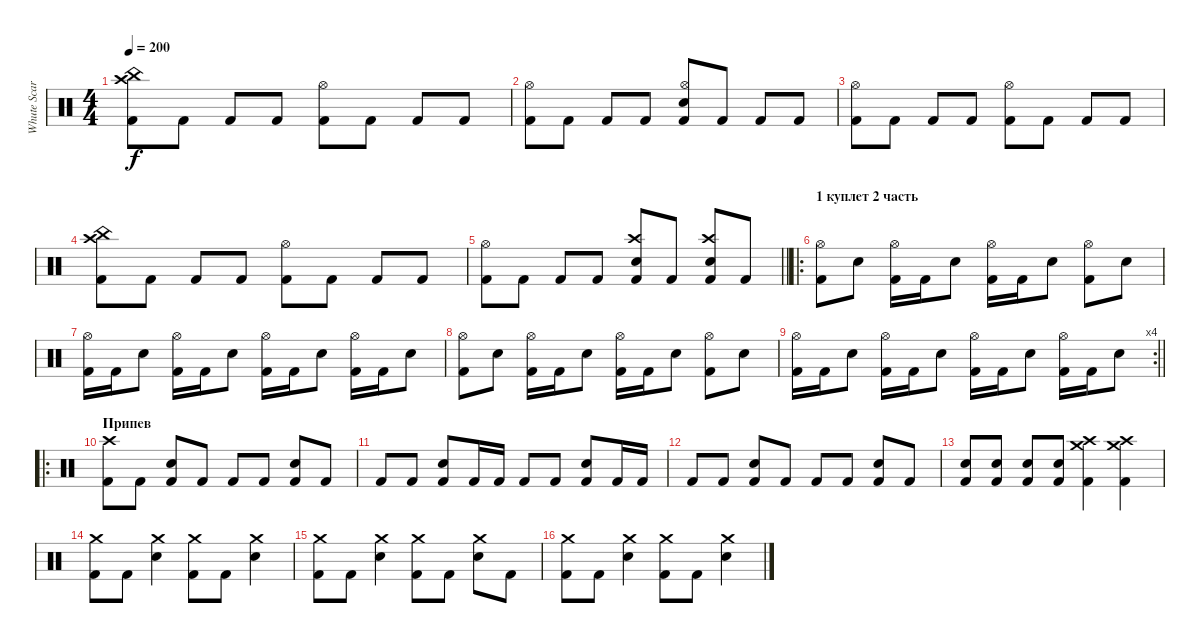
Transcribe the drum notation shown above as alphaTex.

\track ("Whute Scar" "Whute Scar") {instrument percussion}
\staff {score}
\articulation defaults
\ts (4 4)
\tempo 200
\clef neutral
\ks c
("Kick (hit) 2" "Crash high (hit)" "China (hit)").8{dy f} "Kick (hit) 2".8 "Kick (hit) 2".8 "Kick (hit) 2".8 ("Kick (hit) 2" "Hi-Hat (open)").8 "Kick (hit) 2".8 "Kick (hit) 2".8 "Kick (hit) 2".8 |
("Kick (hit) 2" "Hi-Hat (open)").8 "Kick (hit) 2".8 "Kick (hit) 2".8 "Kick (hit) 2".8 ("Kick (hit) 2" "Snare (hit) 2" "Hi-Hat (open)").8 "Kick (hit) 2".8 "Kick (hit) 2".8 "Kick (hit) 2".8 |
("Kick (hit) 2" "Hi-Hat (open)").8 "Kick (hit) 2".8 "Kick (hit) 2".8 "Kick (hit) 2".8 ("Kick (hit) 2" "Hi-Hat (open)").8 "Kick (hit) 2".8 "Kick (hit) 2".8 "Kick (hit) 2".8 |
("Kick (hit) 2" "Crash high (hit)" "China (hit)").8 "Kick (hit) 2".8 "Kick (hit) 2".8 "Kick (hit) 2".8 ("Kick (hit) 2" "Hi-Hat (open)").8 "Kick (hit) 2".8 "Kick (hit) 2".8 "Kick (hit) 2".8 |
\barLineRight lightlight
("Kick (hit) 2" "Hi-Hat (open)").8 "Kick (hit) 2".8 "Kick (hit) 2".8 "Kick (hit) 2".8 ("Kick (hit) 2" "Snare (hit) 2" "Crash high (hit)").8 "Kick (hit) 2".8 ("Kick (hit) 2" "Crash high (hit)" "Snare (hit) 2").8 "Kick (hit) 2".8 |
\ro
\section ("" "1 куплет 2 часть")
("Kick (hit) 2" "Hi-Hat (open)").8 "Snare (hit) 2".8 ("Kick (hit) 2" "Hi-Hat (open)").16 "Kick (hit) 2".16 "Snare (hit) 2".8 ("Kick (hit) 2" "Hi-Hat (open)").16 "Kick (hit) 2".16 "Snare (hit) 2".8 ("Kick (hit) 2" "Hi-Hat (open)").8 "Snare (hit) 2".8 |
("Kick (hit) 2" "Hi-Hat (open)").16 "Kick (hit) 2".16 "Snare (hit) 2".8 ("Kick (hit) 2" "Hi-Hat (open)").16 "Kick (hit) 2".16 "Snare (hit) 2".8 ("Kick (hit) 2" "Hi-Hat (open)").16 "Kick (hit) 2".16 "Snare (hit) 2".8 ("Kick (hit) 2" "Hi-Hat (open)").16 "Kick (hit) 2".16 "Snare (hit) 2".8 |
("Kick (hit) 2" "Hi-Hat (open)").8 "Snare (hit) 2".8 ("Kick (hit) 2" "Hi-Hat (open)").16 "Kick (hit) 2".16 "Snare (hit) 2".8 ("Kick (hit) 2" "Hi-Hat (open)").16 "Kick (hit) 2".16 "Snare (hit) 2".8 ("Kick (hit) 2" "Hi-Hat (open)").8 "Snare (hit) 2".8 |
\rc 4
\barLineRight lightlight
("Kick (hit) 2" "Hi-Hat (open)").16 "Kick (hit) 2".16 "Snare (hit) 2".8 ("Kick (hit) 2" "Hi-Hat (open)").16 "Kick (hit) 2".16 "Snare (hit) 2".8 ("Kick (hit) 2" "Hi-Hat (open)").16 "Kick (hit) 2".16 "Snare (hit) 2".8 ("Kick (hit) 2" "Hi-Hat (open)").16 "Kick (hit) 2".16 "Snare (hit) 2".8 |
\ro
\section ("" "Припев")
("Crash high (hit)" "Kick (hit) 2").8 "Kick (hit) 2".8 ("Snare (hit) 2" "Kick (hit) 2").8 "Kick (hit) 2".8 "Kick (hit) 2".8 "Kick (hit) 2".8 ("Snare (hit) 2" "Kick (hit) 2").8 "Kick (hit) 2".8 |
"Kick (hit) 2".8 "Kick (hit) 2".8 ("Snare (hit) 2" "Kick (hit) 2").8 "Kick (hit) 2".16 "Kick (hit) 2".16 "Kick (hit) 2".8 "Kick (hit) 2".8 ("Snare (hit) 2" "Kick (hit) 2").8 "Kick (hit) 2".16 "Kick (hit) 2".16 |
"Kick (hit) 2".8 "Kick (hit) 2".8 ("Snare (hit) 2" "Kick (hit) 2").8 "Kick (hit) 2".8 "Kick (hit) 2".8 "Kick (hit) 2".8 ("Snare (hit) 2" "Kick (hit) 2").8 "Kick (hit) 2".8 |
("Snare (hit) 2" "Kick (hit) 2").8 ("Snare (hit) 2" "Kick (hit) 2").8 ("Snare (hit) 2" "Kick (hit) 2").8 ("Snare (hit) 2" "Kick (hit) 2").8 ("Crash medium (hit)" "Crash high (hit)" "Kick (hit) 2").4 ("Crash medium (hit)" "Crash high (hit)" "Kick (hit) 2").4 |
("Crash medium (hit)" "Kick (hit) 2").8 "Kick (hit) 2".8 ("Crash medium (hit)" "Snare (hit) 2").4 ("Crash medium (hit)" "Kick (hit) 2").8 "Kick (hit) 2".8 ("Crash medium (hit)" "Snare (hit) 2").4 |
("Crash medium (hit)" "Kick (hit) 2").8 "Kick (hit) 2".8 ("Crash medium (hit)" "Snare (hit) 2").4 ("Crash medium (hit)" "Kick (hit) 2").8 "Kick (hit) 2".8 ("Crash medium (hit)" "Snare (hit) 2").8 "Kick (hit) 2".8 |
("Crash medium (hit)" "Kick (hit) 2").8 "Kick (hit) 2".8 ("Crash medium (hit)" "Snare (hit) 2").4 ("Crash medium (hit)" "Kick (hit) 2").8 "Kick (hit) 2".8 ("Crash medium (hit)" "Snare (hit) 2").4
